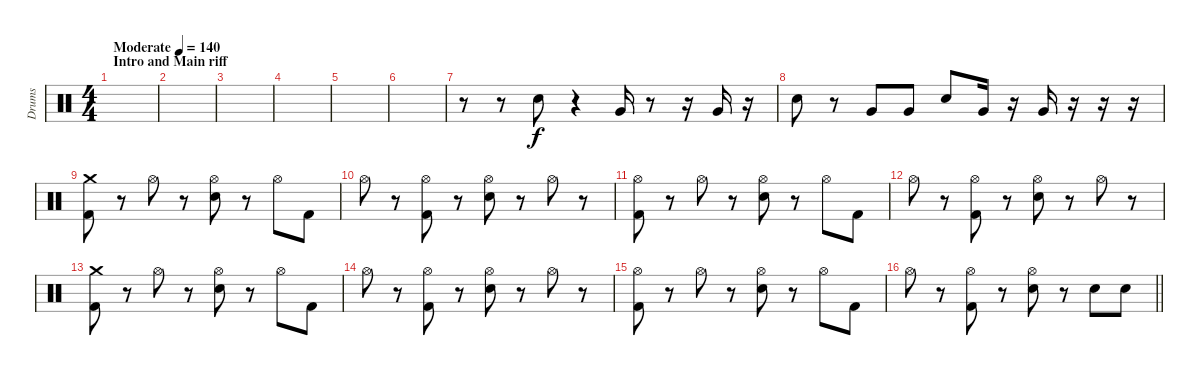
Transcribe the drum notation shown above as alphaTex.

\track ("Drums" "Drums") {instrument percussion}
\staff {score}
\articulation defaults
\ts (4 4)
\section ("" "Intro and Main riff")
\tempo (140 "Moderate")
\clef neutral
\ks c
|
|
|
|
|
|
r.8 r.8 "Electric Snare (hit)".8 r.4 "Very Low Tom (hit)".16 r.8 r.16 "Very Low Tom (hit)".16 r.16 |
"Electric Snare (hit)".8 r.8 "Very Low Tom (hit)".8 "Very Low Tom (hit)".8 "Electric Snare (hit)".8 "Very Low Tom (hit)".16 r.16 "Very Low Tom (hit)".16 r.16 r.16 r.16 |
("Crash medium (hit)" "Kick (hit) 2").8 r.8 "Hi-Hat (open)".8 r.8 ("Hi-Hat (open)" "Electric Snare (hit)").8 r.8 "Hi-Hat (open)".8 "Kick (hit) 2".8 |
"Hi-Hat (open)".8 r.8 ("Hi-Hat (open)" "Kick (hit) 2").8 r.8 ("Hi-Hat (open)" "Electric Snare (hit)").8 r.8 "Hi-Hat (open)".8 r.8 |
("Hi-Hat (open)" "Kick (hit) 2").8 r.8 "Hi-Hat (open)".8 r.8 ("Hi-Hat (open)" "Electric Snare (hit)").8 r.8 "Hi-Hat (open)".8 "Kick (hit) 2".8 |
"Hi-Hat (open)".8 r.8 ("Hi-Hat (open)" "Kick (hit) 2").8 r.8 ("Hi-Hat (open)" "Electric Snare (hit)").8 r.8 "Hi-Hat (open)".8 r.8 |
("Crash medium (hit)" "Kick (hit) 2").8 r.8 "Hi-Hat (open)".8 r.8 ("Hi-Hat (open)" "Electric Snare (hit)").8 r.8 "Hi-Hat (open)".8 "Kick (hit) 2".8 |
"Hi-Hat (open)".8 r.8 ("Hi-Hat (open)" "Kick (hit) 2").8 r.8 ("Hi-Hat (open)" "Electric Snare (hit)").8 r.8 "Hi-Hat (open)".8 r.8 |
("Hi-Hat (open)" "Kick (hit) 2").8 r.8 "Hi-Hat (open)".8 r.8 ("Hi-Hat (open)" "Electric Snare (hit)").8 r.8 "Hi-Hat (open)".8 "Kick (hit) 2".8 |
\barLineRight lightlight "Hi-Hat (open)".8
r.8 ("Hi-Hat (open)" "Kick (hit) 2").8 r.8 ("Hi-Hat (open)" "Electric Snare (hit)").8 r.8 "Electric Snare (hit)".8 "Electric Snare (hit)".8
